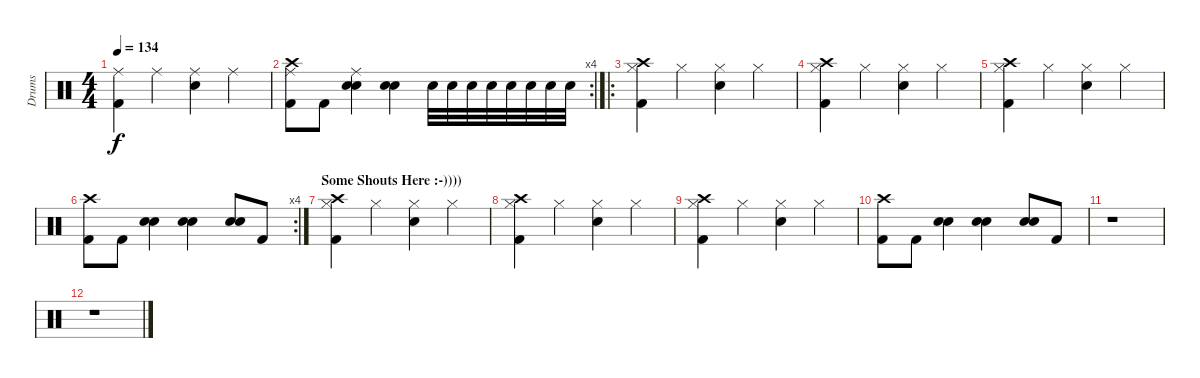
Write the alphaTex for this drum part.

\track ("Drums" "Drums") {instrument percussion}
\staff {score}
\articulation defaults
\ts (4 4)
\tempo 134
\clef neutral
\ks c
("Kick (hit) 2" "Ride (middle)").4{dy f} "Ride (middle)".4 ("Electric Snare (hit)" "Ride (middle)").4 "Ride (middle)".4 |
\rc 4
("Kick (hit) 2" "Ride (middle)" "Crash high (hit)").8 "Kick (hit) 2".8 ("Electric Snare (hit)" "Electric Snare (hit)" "Ride (middle)").4 ("Electric Snare (hit)" "Electric Snare (hit)").4 "Electric Snare (hit)".32 "Electric Snare (hit)".32 "Electric Snare (hit)".32 "Electric Snare (hit)".32 "Electric Snare (hit)".32 "Electric Snare (hit)".32 "Electric Snare (hit)".32 "Electric Snare (hit)".32 |
\ro
("Kick (hit) 2" "Hi-Hat (closed)" "Crash high (hit)").4 "Hi-Hat (closed)".4 ("Electric Snare (hit)" "Hi-Hat (closed)").4 "Hi-Hat (closed)".4 |
("Kick (hit) 2" "Hi-Hat (closed)" "Crash high (hit)").4 "Hi-Hat (closed)".4 ("Electric Snare (hit)" "Hi-Hat (closed)").4 "Hi-Hat (closed)".4 |
("Kick (hit) 2" "Hi-Hat (closed)" "Crash high (hit)").4 "Hi-Hat (closed)".4 ("Electric Snare (hit)" "Hi-Hat (closed)").4 "Hi-Hat (closed)".4 |
\rc 4
("Kick (hit) 2" "Crash high (hit)").8 "Kick (hit) 2".8 ("Electric Snare (hit)" "Electric Snare (hit)").4 ("Electric Snare (hit)" "Electric Snare (hit)").4 ("Electric Snare (hit)" "Electric Snare (hit)").8 "Kick (hit) 2".8 |
\section ("" "Some Shouts Here :-))))")
("Kick (hit) 2" "Hi-Hat (closed)" "Crash high (hit)").4 "Hi-Hat (closed)".4 ("Electric Snare (hit)" "Hi-Hat (closed)").4 "Hi-Hat (closed)".4 |
("Kick (hit) 2" "Hi-Hat (closed)" "Crash high (hit)").4 "Hi-Hat (closed)".4 ("Electric Snare (hit)" "Hi-Hat (closed)").4 "Hi-Hat (closed)".4 |
("Kick (hit) 2" "Hi-Hat (closed)" "Crash high (hit)").4{volume 8} "Hi-Hat (closed)".4 ("Electric Snare (hit)" "Hi-Hat (closed)").4 "Hi-Hat (closed)".4 |
("Kick (hit) 2" "Crash high (hit)").8{volume 0} "Kick (hit) 2".8 ("Electric Snare (hit)" "Electric Snare (hit)").4 ("Electric Snare (hit)" "Electric Snare (hit)").4 ("Electric Snare (hit)" "Electric Snare (hit)").8 "Kick (hit) 2".8 |
r.1 |
r.1
